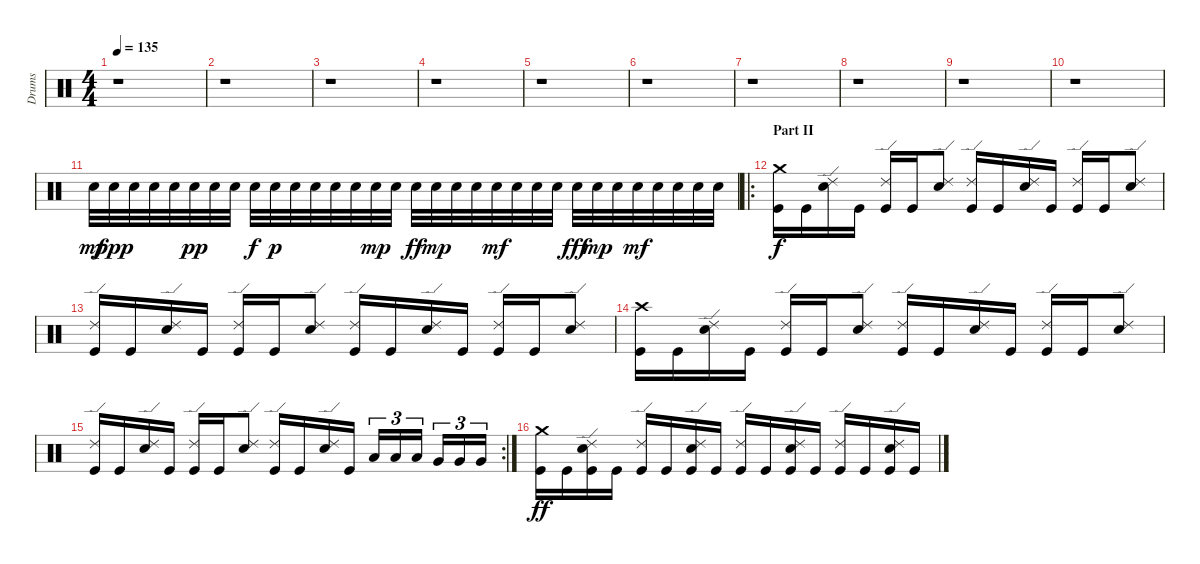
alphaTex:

\track ("Drums" "Drums") {instrument percussion}
\staff {score}
\articulation defaults
\ts (4 4)
\tempo 135
\clef neutral
\ks c
r.1{dy fff} |
r.1 |
r.1 |
r.1 |
r.1 |
r.1 |
r.1 |
r.1 |
r.1 |
r.1 |
"Electric Snare (hit)".32{dy mf} "Electric Snare (hit)".32{dy ppp} "Electric Snare (hit)".32 "Electric Snare (hit)".32 "Electric Snare (hit)".32 "Electric Snare (hit)".32{dy pp} "Electric Snare (hit)".32 "Electric Snare (hit)".32 "Electric Snare (hit)".32{dy f} "Electric Snare (hit)".32{dy p} "Electric Snare (hit)".32 "Electric Snare (hit)".32 "Electric Snare (hit)".32 "Electric Snare (hit)".32 "Electric Snare (hit)".32{dy mp} "Electric Snare (hit)".32 "Electric Snare (hit)".32{dy ff} "Electric Snare (hit)".32{dy mp} "Electric Snare (hit)".32 "Electric Snare (hit)".32 "Electric Snare (hit)".32{dy mf} "Electric Snare (hit)".32 "Electric Snare (hit)".32 "Electric Snare (hit)".32 "Electric Snare (hit)".32{dy fff} "Electric Snare (hit)".32{dy mp} "Electric Snare (hit)".32 "Electric Snare (hit)".32{dy mf} "Electric Snare (hit)".32 "Electric Snare (hit)".32 "Electric Snare (hit)".32 "Electric Snare (hit)".32 |
\ro
\section ("" "Part II")
("Crash medium (hit)" "Kick (hit)").16{dy f} "Kick (hit)".16 ("Ride (edge) 2" "Electric Snare (hit)").16 "Kick (hit)".16 ("Ride (edge) 2" "Kick (hit)").16 "Kick (hit)".16 ("Ride (edge) 2" "Electric Snare (hit)").8 ("Ride (edge) 2" "Kick (hit)").16 "Kick (hit)".16 ("Ride (edge) 2" "Electric Snare (hit)").16 "Kick (hit)".16 ("Ride (edge) 2" "Kick (hit)").16 "Kick (hit)".16 ("Ride (edge) 2" "Electric Snare (hit)").8 |
("Ride (edge) 2" "Kick (hit)").16 "Kick (hit)".16 ("Ride (edge) 2" "Electric Snare (hit)").16 "Kick (hit)".16 ("Ride (edge) 2" "Kick (hit)").16 "Kick (hit)".16 ("Ride (edge) 2" "Electric Snare (hit)").8 ("Ride (edge) 2" "Kick (hit)").16 "Kick (hit)".16 ("Ride (edge) 2" "Electric Snare (hit)").16 "Kick (hit)".16 ("Ride (edge) 2" "Kick (hit)").16 "Kick (hit)".16 ("Ride (edge) 2" "Electric Snare (hit)").8 |
("Crash high (hit)" "Kick (hit)").16 "Kick (hit)".16 ("Ride (edge) 2" "Electric Snare (hit)").16 "Kick (hit)".16 ("Ride (edge) 2" "Kick (hit)").16 "Kick (hit)".16 ("Ride (edge) 2" "Electric Snare (hit)").8 ("Ride (edge) 2" "Kick (hit)").16 "Kick (hit)".16 ("Ride (edge) 2" "Electric Snare (hit)").16 "Kick (hit)".16 ("Ride (edge) 2" "Kick (hit)").16 "Kick (hit)".16 ("Ride (edge) 2" "Electric Snare (hit)").8 |
\rc 2
("Ride (edge) 2" "Kick (hit)").16 "Kick (hit)".16 ("Ride (edge) 2" "Electric Snare (hit)").16 "Kick (hit)".16 ("Ride (edge) 2" "Kick (hit)").16 "Kick (hit)".16 ("Ride (edge) 2" "Electric Snare (hit)").8 ("Ride (edge) 2" "Kick (hit)").16 "Kick (hit)".16 ("Ride (edge) 2" "Electric Snare (hit)").16 "Kick (hit)".16 "Low Tom (hit)".16{tu (3 2)} "Low Tom (hit)".16{tu (3 2)} "Low Tom (hit)".16{tu (3 2)} "Very Low Tom (hit)".16{tu (3 2)} "Very Low Tom (hit)".16{tu (3 2)} "Very Low Tom (hit)".16{tu (3 2)} |
("Crash medium (hit)" "Kick (hit)").16{dy ff} "Kick (hit)".16 ("Ride (edge) 2" "Electric Snare (hit)" "Kick (hit)").16 "Kick (hit)".16 ("Ride (edge) 2" "Kick (hit)").16 "Kick (hit)".16 ("Ride (edge) 2" "Electric Snare (hit)" "Kick (hit)").16 "Kick (hit)".16 ("Ride (edge) 2" "Kick (hit)").16 "Kick (hit)".16 ("Ride (edge) 2" "Electric Snare (hit)" "Kick (hit)").16 "Kick (hit)".16 ("Ride (edge) 2" "Kick (hit)").16 "Kick (hit)".16 ("Ride (edge) 2" "Electric Snare (hit)" "Kick (hit)").16 "Kick (hit)".16
